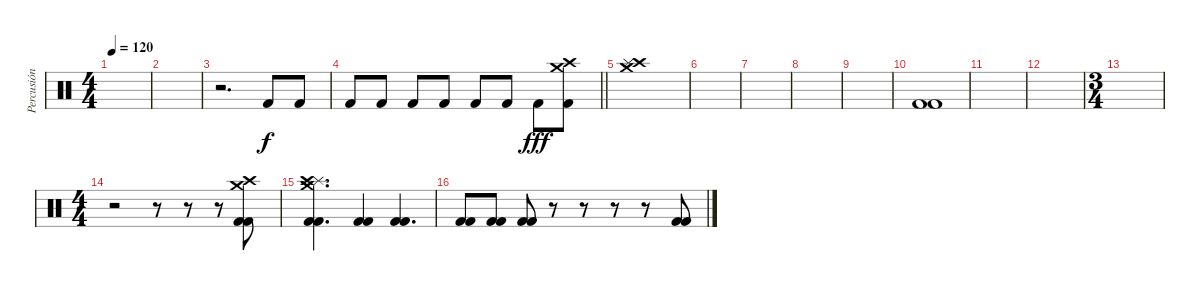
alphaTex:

\track ("Percusión" "Percusión") {instrument percussion}
\staff {score}
\articulation defaults
\ts (4 4)
\tempo 120
\clef neutral
\ks c
|
|
r.2{d volume 7} "Kick (hit) 2".8{volume 14} "Kick (hit) 2".8 |
\barLineRight lightlight "Kick (hit) 2".8 "Kick (hit) 2".8 "Kick (hit) 2".8 "Kick (hit) 2".8 "Kick (hit) 2".8 "Kick (hit) 2".8 "Kick (hit) 2".8{dy fff}
("Crash medium (hit)" "Crash high (hit)" "Kick (hit) 2").8 |
("Crash medium (hit)" "Crash high (hit)" "Splash (hit)").1 |
|
|
|
|
("Kick (hit) 2" "Kick (hit) 2").1 |
|
|
\ts (3 4)
|
\ts (4 4)
r.2 r.8 r.8 r.8 ("Crash medium (hit)" "Crash high (hit)" "Kick (hit) 2" "Kick (hit) 2").8 |
("Splash (hit)" "Crash high (hit)" "Crash medium (hit)" "Kick (hit) 2" "Kick (hit) 2").4{d} ("Kick (hit) 2" "Kick (hit) 2").4 ("Kick (hit) 2" "Kick (hit) 2").4{d} |
("Kick (hit) 2" "Kick (hit) 2").8 ("Kick (hit) 2" "Kick (hit) 2").8 ("Kick (hit) 2" "Kick (hit) 2").8 r.8 r.8 r.8 r.8 ("Kick (hit) 2" "Kick (hit) 2").8
